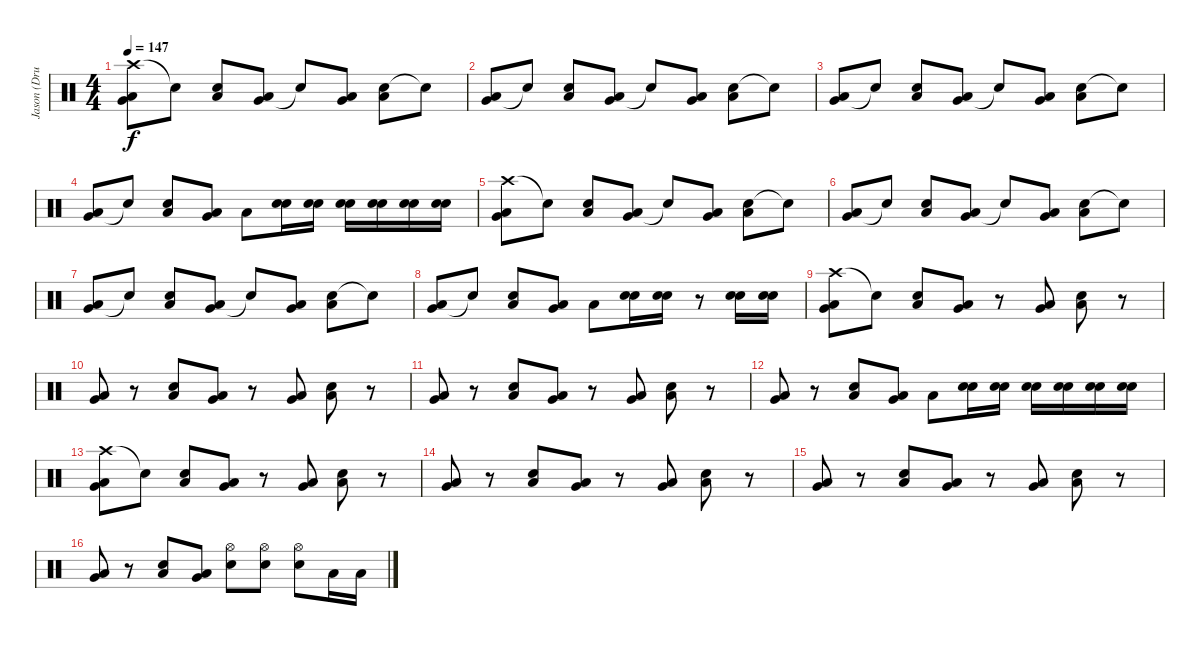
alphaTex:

\track ("Jason (Drums)" "Jason (Dru") {instrument percussion}
\staff {score}
\articulation defaults
\ts (4 4)
\tempo 147
\clef neutral
\ks c
("Crash high (hit)" "Very Low Tom (hit)" "Low Tom (hit)").8{dy f} "Snare (hit)"{t}.8 ("Electric Snare (hit)" "Low Tom (hit)").8 ("Very Low Tom (hit)" "Low Tom (hit)").8 "Snare (hit)"{t}.8 ("Very Low Tom (hit)" "Low Tom (hit)").8 ("Electric Snare (hit)" "Low Tom (hit)").8 "Snare (hit)"{t}.8 |
("Very Low Tom (hit)" "Low Tom (hit)").8 "Snare (hit)"{t}.8 ("Electric Snare (hit)" "Low Tom (hit)").8 ("Very Low Tom (hit)" "Low Tom (hit)").8 "Snare (hit)"{t}.8 ("Very Low Tom (hit)" "Low Tom (hit)").8 ("Electric Snare (hit)" "Low Tom (hit)").8 "Snare (hit)"{t}.8 |
("Very Low Tom (hit)" "Low Tom (hit)").8 "Snare (hit)"{t}.8 ("Electric Snare (hit)" "Low Tom (hit)").8 ("Very Low Tom (hit)" "Low Tom (hit)").8 "Snare (hit)"{t}.8 ("Very Low Tom (hit)" "Low Tom (hit)").8 ("Electric Snare (hit)" "Low Tom (hit)").8 "Snare (hit)"{t}.8 |
("Very Low Tom (hit)" "Low Tom (hit)").8 "Snare (hit)"{t}.8 ("Electric Snare (hit)" "Low Tom (hit)").8 ("Very Low Tom (hit)" "Low Tom (hit)").8 "Low Tom (hit)".8 ("Snare (hit) 2" "Electric Snare (hit)").16 ("Snare (hit) 2" "Electric Snare (hit)").16 ("Snare (hit) 2" "Electric Snare (hit)").16 ("Snare (hit) 2" "Electric Snare (hit)").16 ("Snare (hit) 2" "Electric Snare (hit)").16 ("Snare (hit) 2" "Electric Snare (hit)").16 |
("Crash high (hit)" "Very Low Tom (hit)" "Low Tom (hit)").8 "Snare (hit)"{t}.8 ("Electric Snare (hit)" "Low Tom (hit)").8 ("Very Low Tom (hit)" "Low Tom (hit)").8 "Snare (hit)"{t}.8 ("Very Low Tom (hit)" "Low Tom (hit)").8 ("Electric Snare (hit)" "Low Tom (hit)").8 "Snare (hit)"{t}.8 |
("Very Low Tom (hit)" "Low Tom (hit)").8 "Snare (hit)"{t}.8 ("Electric Snare (hit)" "Low Tom (hit)").8 ("Very Low Tom (hit)" "Low Tom (hit)").8 "Snare (hit)"{t}.8 ("Very Low Tom (hit)" "Low Tom (hit)").8 ("Electric Snare (hit)" "Low Tom (hit)").8 "Snare (hit)"{t}.8 |
("Very Low Tom (hit)" "Low Tom (hit)").8 "Snare (hit)"{t}.8 ("Electric Snare (hit)" "Low Tom (hit)").8 ("Very Low Tom (hit)" "Low Tom (hit)").8 "Snare (hit)"{t}.8 ("Very Low Tom (hit)" "Low Tom (hit)").8 ("Electric Snare (hit)" "Low Tom (hit)").8 "Snare (hit)"{t}.8 |
("Very Low Tom (hit)" "Low Tom (hit)").8 "Snare (hit)"{t}.8 ("Electric Snare (hit)" "Low Tom (hit)").8 ("Very Low Tom (hit)" "Low Tom (hit)").8 "Low Tom (hit)".8 ("Snare (hit) 2" "Electric Snare (hit)").16 ("Snare (hit) 2" "Electric Snare (hit)").16 r.8 ("Snare (hit) 2" "Electric Snare (hit)").16 ("Snare (hit) 2" "Electric Snare (hit)").16 |
("Crash high (hit)" "Very Low Tom (hit)" "Low Tom (hit)").8 "Snare (hit)"{t}.8 ("Electric Snare (hit)" "Low Tom (hit)").8 ("Very Low Tom (hit)" "Low Tom (hit)").8 r.8 ("Very Low Tom (hit)" "Low Tom (hit)").8 ("Electric Snare (hit)" "Low Tom (hit)").8 r.8 |
("Very Low Tom (hit)" "Low Tom (hit)").8 r.8 ("Electric Snare (hit)" "Low Tom (hit)").8 ("Very Low Tom (hit)" "Low Tom (hit)").8 r.8 ("Very Low Tom (hit)" "Low Tom (hit)").8 ("Electric Snare (hit)" "Low Tom (hit)").8 r.8 |
("Very Low Tom (hit)" "Low Tom (hit)").8 r.8 ("Electric Snare (hit)" "Low Tom (hit)").8 ("Very Low Tom (hit)" "Low Tom (hit)").8 r.8 ("Very Low Tom (hit)" "Low Tom (hit)").8 ("Electric Snare (hit)" "Low Tom (hit)").8 r.8 |
("Very Low Tom (hit)" "Low Tom (hit)").8 r.8 ("Electric Snare (hit)" "Low Tom (hit)").8 ("Very Low Tom (hit)" "Low Tom (hit)").8 "Low Tom (hit)".8 ("Snare (hit) 2" "Electric Snare (hit)").16 ("Snare (hit) 2" "Electric Snare (hit)").16 ("Snare (hit) 2" "Electric Snare (hit)").16 ("Snare (hit) 2" "Electric Snare (hit)").16 ("Snare (hit) 2" "Electric Snare (hit)").16 ("Snare (hit) 2" "Electric Snare (hit)").16 |
("Crash high (hit)" "Very Low Tom (hit)" "Low Tom (hit)").8 "Snare (hit)"{t}.8 ("Electric Snare (hit)" "Low Tom (hit)").8 ("Very Low Tom (hit)" "Low Tom (hit)").8 r.8 ("Very Low Tom (hit)" "Low Tom (hit)").8 ("Electric Snare (hit)" "Low Tom (hit)").8 r.8 |
("Very Low Tom (hit)" "Low Tom (hit)").8 r.8 ("Electric Snare (hit)" "Low Tom (hit)").8 ("Very Low Tom (hit)" "Low Tom (hit)").8 r.8 ("Very Low Tom (hit)" "Low Tom (hit)").8 ("Electric Snare (hit)" "Low Tom (hit)").8 r.8 |
("Very Low Tom (hit)" "Low Tom (hit)").8 r.8 ("Electric Snare (hit)" "Low Tom (hit)").8 ("Very Low Tom (hit)" "Low Tom (hit)").8 r.8 ("Very Low Tom (hit)" "Low Tom (hit)").8 ("Electric Snare (hit)" "Low Tom (hit)").8 r.8 |
("Very Low Tom (hit)" "Low Tom (hit)").8 r.8 ("Electric Snare (hit)" "Low Tom (hit)").8 ("Very Low Tom (hit)" "Low Tom (hit)").8 ("Hi-Hat (open)" "Snare (hit) 2").8 ("Hi-Hat (open)" "Snare (hit) 2").8 ("Hi-Hat (open)" "Snare (hit) 2").8 "Low Tom (hit)".16 "Low Tom (hit)".16
